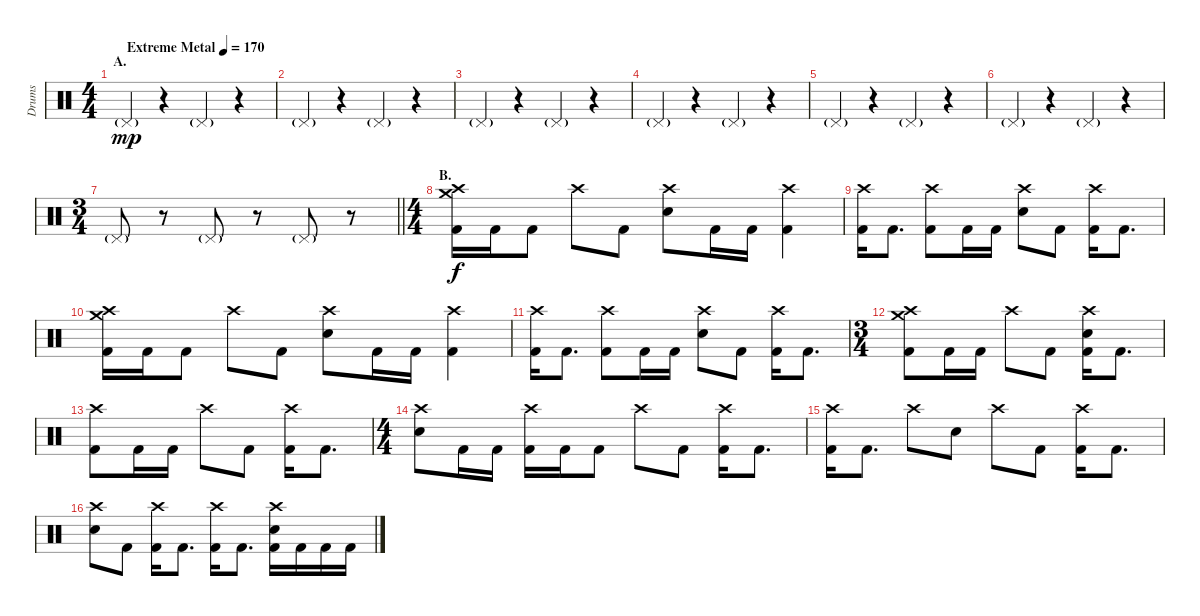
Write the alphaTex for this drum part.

\track ("Drums" "Drums") {instrument percussion}
\staff {score}
\articulation defaults
\ts (4 4)
\section ("" "A.")
\tempo (170 "Extreme Metal")
\clef neutral
\ks c "Pedal Hi-Hat (hit)"{g}.4{dy mp}
r.4 "Pedal Hi-Hat (hit)"{g}.4 r.4 |
"Pedal Hi-Hat (hit)"{g}.4 r.4 "Pedal Hi-Hat (hit)"{g}.4 r.4 |
"Pedal Hi-Hat (hit)"{g}.4 r.4 "Pedal Hi-Hat (hit)"{g}.4 r.4 |
"Pedal Hi-Hat (hit)"{g}.4 r.4 "Pedal Hi-Hat (hit)"{g}.4 r.4 |
"Pedal Hi-Hat (hit)"{g}.4 r.4 "Pedal Hi-Hat (hit)"{g}.4 r.4 |
"Pedal Hi-Hat (hit)"{g}.4 r.4 "Pedal Hi-Hat (hit)"{g}.4 r.4 |
\ts (3 4)
\barLineRight lightlight "Pedal Hi-Hat (hit)"{g}.8
r.8 "Pedal Hi-Hat (hit)"{g}.8 r.8 "Pedal Hi-Hat (hit)"{g}.8 r.8 |
\ts (4 4)
\section ("" "B.")
("Crash medium (hit)" "Crash high (hit)" "Kick (hit) 2").16{dy f} "Kick (hit) 2".16 "Kick (hit) 2".8 "Crash high (hit)".8 "Kick (hit) 2".8 ("Crash high (hit)" "Electric Snare (hit)").8 "Kick (hit) 2".16 "Kick (hit) 2".16 ("Crash high (hit)" "Kick (hit) 2").4 |
("Crash high (hit)" "Kick (hit) 2").16 "Kick (hit) 2".8{d} ("Crash high (hit)" "Kick (hit) 2").8 "Kick (hit) 2".16 "Kick (hit) 2".16 ("Crash high (hit)" "Electric Snare (hit)").8 "Kick (hit) 2".8 ("Crash high (hit)" "Kick (hit) 2").16 "Kick (hit) 2".8{d} |
("Crash medium (hit)" "Crash high (hit)" "Kick (hit) 2").16 "Kick (hit) 2".16 "Kick (hit) 2".8 "Crash high (hit)".8 "Kick (hit) 2".8 ("Crash high (hit)" "Electric Snare (hit)").8 "Kick (hit) 2".16 "Kick (hit) 2".16 ("Crash high (hit)" "Kick (hit) 2").4 |
("Crash high (hit)" "Kick (hit) 2").16 "Kick (hit) 2".8{d} ("Crash high (hit)" "Kick (hit) 2").8 "Kick (hit) 2".16 "Kick (hit) 2".16 ("Crash high (hit)" "Electric Snare (hit)").8 "Kick (hit) 2".8 ("Crash high (hit)" "Kick (hit) 2").16 "Kick (hit) 2".8{d} |
\ts (3 4)
("Crash medium (hit)" "Crash high (hit)" "Kick (hit) 2").8 "Kick (hit) 2".16 "Kick (hit) 2".16 "Crash high (hit)".8 "Kick (hit) 2".8 ("Crash high (hit)" "Electric Snare (hit)" "Kick (hit) 2").16 "Kick (hit) 2".8{d} |
("Crash high (hit)" "Kick (hit) 2").8 "Kick (hit) 2".16 "Kick (hit) 2".16 "Crash high (hit)".8 "Kick (hit) 2".8 ("Crash high (hit)" "Kick (hit) 2").16 "Kick (hit) 2".8{d} |
\ts (4 4)
("Crash high (hit)" "Electric Snare (hit)").8 "Kick (hit) 2".16 "Kick (hit) 2".16 ("Crash high (hit)" "Kick (hit) 2").16 "Kick (hit) 2".16 "Kick (hit) 2".8 "Crash high (hit)".8 "Kick (hit) 2".8 ("Crash high (hit)" "Kick (hit) 2").16 "Kick (hit) 2".8{d} |
("Crash high (hit)" "Kick (hit) 2").16 "Kick (hit) 2".8{d} "Crash high (hit)".8 "Electric Snare (hit)".8 "Crash high (hit)".8 "Kick (hit) 2".8 ("Crash high (hit)" "Kick (hit) 2").16 "Kick (hit) 2".8{d} |
("Crash high (hit)" "Electric Snare (hit)").8 "Kick (hit) 2".8 ("Crash high (hit)" "Kick (hit) 2").16 "Kick (hit) 2".8{d} ("Crash high (hit)" "Kick (hit) 2").16 "Kick (hit) 2".8{d} ("Crash high (hit)" "Electric Snare (hit)" "Kick (hit) 2").16 "Kick (hit) 2".16 "Kick (hit) 2".16 "Kick (hit) 2".16
